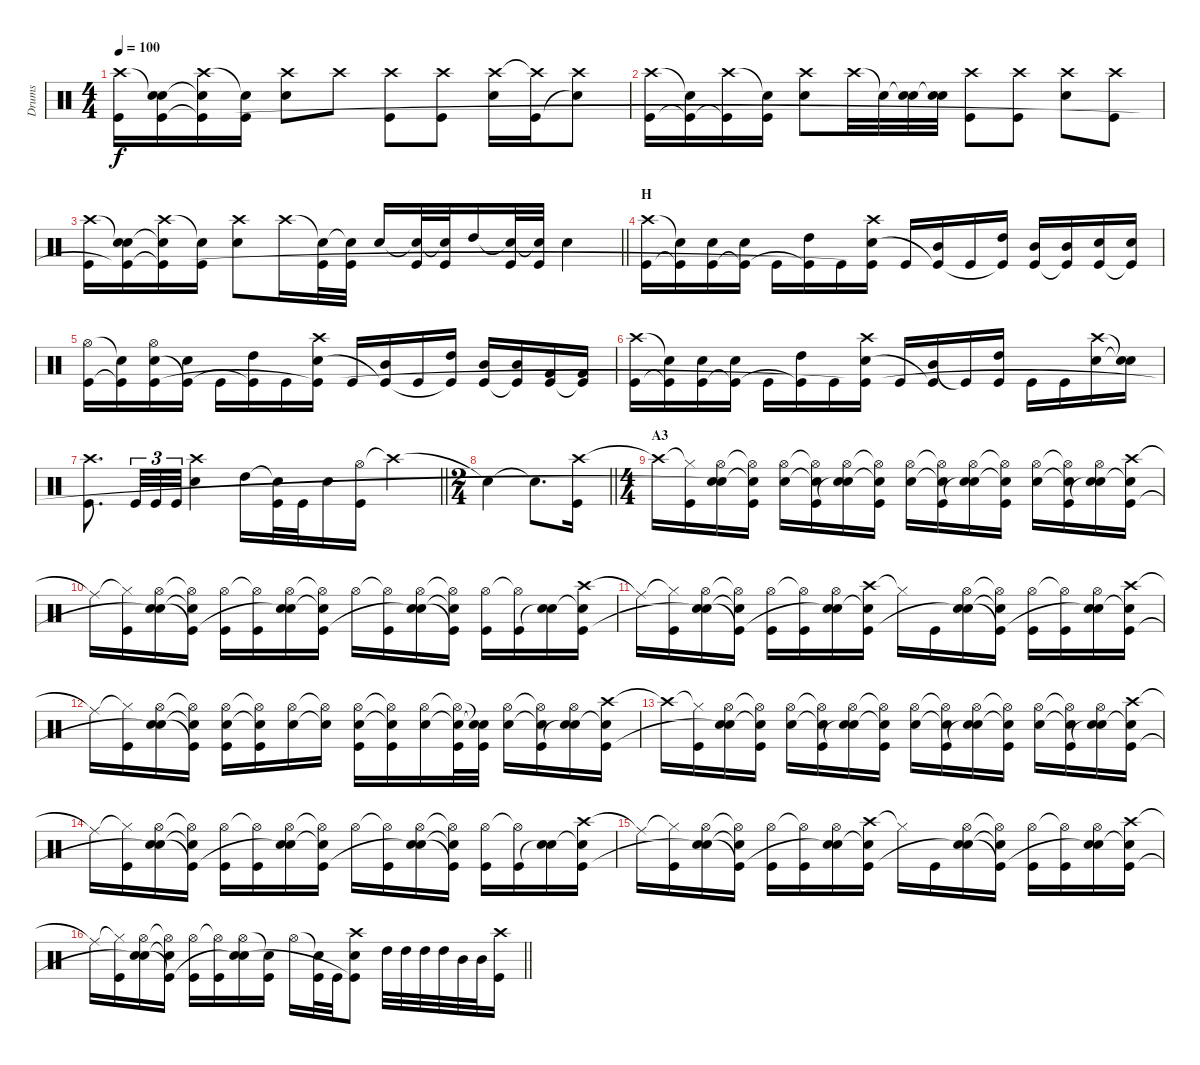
\track ("Drums" "Drums") {instrument percussion}
\staff {score}
\articulation defaults
\ts (4 4)
\tempo 100
\clef neutral
\ks c
("Crash high (hit)" "Kick (hit)").16{dy f} ("Snare (hit)"{t} "Snare (hit) 2" "Kick (hit)"{t}).16 ("Crash high (hit)" "Snare (hit)"{t} "Kick (hit)"{t}).16 ("Snare (hit)"{t} "Kick (hit)").16 ("Crash high (hit)" "Snare (hit) 2").8 "Crash high (hit)".8 ("Crash high (hit)" "Kick (hit)").8 ("Crash high (hit)" "Kick (hit)").8 ("Crash high (hit)" "Snare (hit) 2").16 ("Crash high (hit)"{t} "Kick (hit)").16 ("Crash high (hit)" "Snare (hit)"{t}).8 |
("Crash high (hit)" "Kick (hit)").16 ("Snare (hit)"{t} "Kick (hit)"{t}).16 ("Crash high (hit)" "Kick (hit)"{t}).16 ("Snare (hit)"{t} "Kick (hit)").16 ("Crash high (hit)" "Snare (hit) 2").8 "Crash high (hit)".32 "Snare (hit)"{t}.32 ("Snare (hit)"{t} "Snare (hit) 2").32 ("Snare (hit)"{t} "Snare (hit) 2").32 ("Crash high (hit)" "Kick (hit)").8 ("Crash high (hit)" "Kick (hit)").8 ("Crash high (hit)" "Snare (hit) 2").8 ("Crash high (hit)" "Kick (hit)").8 |
\barLineRight lightlight
("Crash high (hit)" "Kick (hit)").16 ("Snare (hit)"{t} "Snare (hit) 2" "Kick (hit)"{t}).16 ("Crash high (hit)" "Snare (hit)"{t} "Kick (hit)"{t}).16 ("Snare (hit)"{t} "Kick (hit)").16 ("Crash high (hit)" "Snare (hit) 2").8 "Crash high (hit)".16 ("Snare (hit)"{t} "Kick (hit)").32 ("Snare (hit)"{t} "Kick (hit)").32 "Snare (hit) 2".16 ("Snare (hit)"{t} "Kick (hit)").32 ("Snare (hit)"{t} "Kick (hit)").32 "High Tom (hit)".16 ("Snare (hit)"{t} "Kick (hit)").32 ("Snare (hit)"{t} "Kick (hit)").32 "Snare (hit) 2".4 |
\section ("" "H")
("Crash high (hit)" "Kick (hit)").16 ("Snare (hit)"{t} "Kick (hit)"{t}).16 ("Snare (hit) 2" "Kick (hit)").16 ("Snare (hit) 2" "Kick (hit)"{t}).16 "Kick (hit)".16 ("High Tom (hit)" "Kick (hit)"{t}).16 "Kick (hit)".16 ("Crash high (hit)" "Snare (hit) 2" "Kick (hit)"{t}).16 "Kick (hit)".16 ("Mid Tom (hit)" "Kick (hit)"{t}).16 "Kick (hit)".16 ("High Tom (hit)" "Kick (hit)"{t}).16 ("Mid Tom (hit)" "Kick (hit)").16 ("Mid Tom (hit)" "Kick (hit)"{t}).16 ("Snare (hit) 2" "Kick (hit)").16 ("Snare (hit) 2" "Kick (hit)"{t}).16 |
("Hi-Hat (open)" "Kick (hit)").16 ("Snare (hit)"{t} "Kick (hit)"{t}).16 ("Hi-Hat (open)" "Snare (hit) 2" "Kick (hit)").16 ("Snare (hit) 2" "Kick (hit)"{t}).16 "Kick (hit)".16 ("High Tom (hit)" "Kick (hit)"{t}).16 "Kick (hit)".16 ("Crash high (hit)" "Snare (hit) 2" "Kick (hit)"{t}).16 "Kick (hit)".16 ("Mid Tom (hit)" "Kick (hit)"{t}).16 "Kick (hit)".16 ("High Tom (hit)" "Kick (hit)"{t}).16 ("Mid Tom (hit)" "Kick (hit)").16 ("Mid Tom (hit)" "Kick (hit)"{t}).16 ("Very Low Tom (hit)" "Kick (hit)").16 ("Very Low Tom (hit)" "Kick (hit)"{t}).16 |
("Crash high (hit)" "Kick (hit)").16 ("Snare (hit)"{t} "Kick (hit)"{t}).16 ("Snare (hit) 2" "Kick (hit)").16 ("Snare (hit) 2" "Kick (hit)"{t}).16 "Kick (hit)".16 ("High Tom (hit)" "Kick (hit)"{t}).16 "Kick (hit)".16 ("Crash high (hit)" "Snare (hit) 2" "Kick (hit)"{t}).16 "Kick (hit)".16 ("Mid Tom (hit)" "Kick (hit)"{t}).16 "Kick (hit)"{t}.16 ("High Tom (hit)" "Kick (hit)").16 "Kick (hit)".16 "Kick (hit)".16 ("Crash high (hit)" "Snare (hit) 2").16 ("Snare (hit)"{t} "Snare (hit) 2"{t}).16 |
\barLineRight lightlight
("Crash high (hit)" "Kick (hit)").8{d} "Kick (hit)".32{tu (3 2)} "Kick (hit)".32{tu (3 2)} "Kick (hit)".32{tu (3 2)} ("Crash high (hit)" "Snare (hit) 2").4 "High Tom (hit)".16 ("Snare (hit)"{t} "Kick (hit)").32 "Kick (hit)".32 "Snare (hit) 2".16 ("Hi-Hat (open)" "Kick (hit)").16 "Crash high (hit)"{t}.4 |
\ts (2 4)
\barLineRight lightlight "Snare (hit)"{t}.4 "Snare (hit)"{t}.8{d}
("Crash high (hit)" "Kick (hit)").16 |
\ts (4 4)
\section ("" "A3")
"Crash high (hit)"{t}.16 ("Hi-Hat (closed)"{t} "Kick (hit)").16 ("Hi-Hat (open)" "Snare (hit) 2" "Snare (hit)"{t}).16 ("Hi-Hat (open)"{t} "Snare (hit) 2"{t} "Kick (hit)").16 ("Hi-Hat (open)" "Snare (hit) 2").16 ("Hi-Hat (open)"{t} "Snare (hit) 2"{t} "Kick (hit)").16 ("Hi-Hat (open)" "Snare (hit) 2" "Snare (hit)"{t}).16 ("Hi-Hat (open)"{t} "Snare (hit) 2"{t} "Kick (hit)").16 ("Hi-Hat (open)" "Snare (hit) 2").16 ("Hi-Hat (open)"{t} "Snare (hit) 2"{t} "Kick (hit)").16 ("Hi-Hat (open)" "Snare (hit) 2" "Snare (hit)"{t}).16 ("Hi-Hat (open)"{t} "Snare (hit) 2"{t} "Kick (hit)").16 ("Hi-Hat (open)" "Snare (hit) 2").16 ("Hi-Hat (open)"{t} "Snare (hit) 2"{t} "Kick (hit)").16 ("Hi-Hat (open)" "Snare (hit) 2" "Snare (hit)"{t}).16 ("Crash high (hit)" "Snare (hit) 2"{t} "Kick (hit)").16 |
"Ride (middle)"{t}.16 ("Hi-Hat (closed)"{t} "Kick (hit)").16 ("Hi-Hat (open)" "Snare (hit) 2" "Snare (hit)"{t}).16 ("Hi-Hat (open)"{t} "Snare (hit) 2"{t} "Kick (hit)"{t}).16 ("Hi-Hat (open)" "Kick (hit)").16 ("Hi-Hat (open)"{t} "Kick (hit)").16 ("Hi-Hat (open)" "Snare (hit) 2" "Snare (hit)"{t}).16 ("Hi-Hat (open)"{t} "Snare (hit) 2"{t} "Kick (hit)").16 "Hi-Hat (open)".16 ("Hi-Hat (open)"{t} "Kick (hit)").16 ("Hi-Hat (open)" "Snare (hit) 2" "Snare (hit)"{t}).16 ("Hi-Hat (open)"{t} "Snare (hit) 2"{t} "Kick (hit)"{t}).16 ("Hi-Hat (open)" "Kick (hit)").16 ("Hi-Hat (open)"{t} "Kick (hit)").16 ("Snare (hit) 2" "Snare (hit)"{t}).16 ("Crash high (hit)" "Snare (hit) 2"{t} "Kick (hit)").16 |
"Ride (middle)"{t}.16 ("Hi-Hat (closed)"{t} "Kick (hit)").16 ("Hi-Hat (open)" "Snare (hit) 2" "Snare (hit)"{t}).16 ("Hi-Hat (open)"{t} "Snare (hit) 2"{t} "Kick (hit)"{t}).16 ("Hi-Hat (open)" "Kick (hit)").16 ("Hi-Hat (open)"{t} "Kick (hit)").16 ("Hi-Hat (open)" "Snare (hit) 2" "Snare (hit)"{t}).16 ("Crash high (hit)" "Snare (hit) 2"{t} "Kick (hit)").16 "Hi-Hat (closed)"{t}.16 "Kick (hit)".16 ("Hi-Hat (open)" "Snare (hit) 2" "Snare (hit)"{t}).16 ("Hi-Hat (open)"{t} "Snare (hit) 2"{t} "Kick (hit)"{t}).16 ("Hi-Hat (open)" "Kick (hit)").16 ("Hi-Hat (open)"{t} "Kick (hit)").16 ("Hi-Hat (open)" "Snare (hit) 2" "Snare (hit)"{t}).16 ("Crash high (hit)" "Snare (hit) 2"{t} "Kick (hit)").16 |
"Ride (middle)"{t}.16 ("Hi-Hat (closed)"{t} "Kick (hit)").16 ("Hi-Hat (open)" "Snare (hit) 2" "Snare (hit)"{t}).16 ("Hi-Hat (open)"{t} "Snare (hit) 2"{t} "Kick (hit)"{t}).16 ("Hi-Hat (open)" "Snare (hit) 2" "Kick (hit)").16 ("Hi-Hat (open)"{t} "Snare (hit) 2"{t} "Kick (hit)").16 ("Hi-Hat (open)" "Snare (hit) 2").16 ("Hi-Hat (open)"{t} "Snare (hit) 2"{t}).16 ("Hi-Hat (open)" "Snare (hit) 2" "Kick (hit)").16 ("Hi-Hat (open)"{t} "Snare (hit) 2"{t} "Kick (hit)").16 ("Hi-Hat (open)" "Snare (hit) 2").16 ("Hi-Hat (open)"{t} "Snare (hit) 2"{t} "Kick (hit)").32 ("Snare (hit)"{t} "Snare (hit)"{t} "Kick (hit)").32 ("Hi-Hat (open)" "Snare (hit) 2").16 ("Hi-Hat (open)"{t} "Snare (hit) 2"{t} "Kick (hit)").16 ("Hi-Hat (open)" "Snare (hit) 2" "Snare (hit)"{t}).16 ("Crash high (hit)" "Snare (hit) 2"{t} "Kick (hit)").16 |
"Crash high (hit)"{t}.16 ("Hi-Hat (closed)"{t} "Kick (hit)").16 ("Hi-Hat (open)" "Snare (hit) 2" "Snare (hit)"{t}).16 ("Hi-Hat (open)"{t} "Snare (hit) 2"{t} "Kick (hit)").16 ("Hi-Hat (open)" "Snare (hit) 2").16 ("Hi-Hat (open)"{t} "Snare (hit) 2"{t} "Kick (hit)").16 ("Hi-Hat (open)" "Snare (hit) 2" "Snare (hit)"{t}).16 ("Hi-Hat (open)"{t} "Snare (hit) 2"{t} "Kick (hit)").16 ("Hi-Hat (open)" "Snare (hit) 2").16 ("Hi-Hat (open)"{t} "Snare (hit) 2"{t} "Kick (hit)").16 ("Hi-Hat (open)" "Snare (hit) 2" "Snare (hit)"{t}).16 ("Hi-Hat (open)"{t} "Snare (hit) 2"{t} "Kick (hit)").16 ("Hi-Hat (open)" "Snare (hit) 2").16 ("Hi-Hat (open)"{t} "Snare (hit) 2"{t} "Kick (hit)").16 ("Hi-Hat (open)" "Snare (hit) 2" "Snare (hit)"{t}).16 ("Crash high (hit)" "Snare (hit) 2"{t} "Kick (hit)").16 |
"Ride (middle)"{t}.16 ("Hi-Hat (closed)"{t} "Kick (hit)").16 ("Hi-Hat (open)" "Snare (hit) 2" "Snare (hit)"{t}).16 ("Hi-Hat (open)"{t} "Snare (hit) 2"{t} "Kick (hit)"{t}).16 ("Hi-Hat (open)" "Kick (hit)").16 ("Hi-Hat (open)"{t} "Kick (hit)").16 ("Hi-Hat (open)" "Snare (hit) 2" "Snare (hit)"{t}).16 ("Hi-Hat (open)"{t} "Snare (hit) 2"{t} "Kick (hit)").16 "Hi-Hat (open)".16 ("Hi-Hat (open)"{t} "Kick (hit)").16 ("Hi-Hat (open)" "Snare (hit) 2" "Snare (hit)"{t}).16 ("Hi-Hat (open)"{t} "Snare (hit) 2"{t} "Kick (hit)"{t}).16 ("Hi-Hat (open)" "Kick (hit)").16 ("Hi-Hat (open)"{t} "Kick (hit)").16 ("Snare (hit) 2" "Snare (hit)"{t}).16 ("Crash high (hit)" "Snare (hit) 2"{t} "Kick (hit)").16 |
"Ride (middle)"{t}.16 ("Hi-Hat (closed)"{t} "Kick (hit)").16 ("Hi-Hat (open)" "Snare (hit) 2" "Snare (hit)"{t}).16 ("Hi-Hat (open)"{t} "Snare (hit) 2"{t} "Kick (hit)"{t}).16 ("Hi-Hat (open)" "Kick (hit)").16 ("Hi-Hat (open)"{t} "Kick (hit)").16 ("Hi-Hat (open)" "Snare (hit) 2" "Snare (hit)"{t}).16 ("Crash high (hit)" "Snare (hit) 2"{t} "Kick (hit)").16 "Hi-Hat (closed)"{t}.16 "Kick (hit)".16 ("Hi-Hat (open)" "Snare (hit) 2" "Snare (hit)"{t}).16 ("Hi-Hat (open)"{t} "Snare (hit) 2"{t} "Kick (hit)"{t}).16 ("Hi-Hat (open)" "Kick (hit)").16 ("Hi-Hat (open)"{t} "Kick (hit)").16 ("Hi-Hat (open)" "Snare (hit) 2" "Snare (hit)"{t}).16 ("Crash high (hit)" "Snare (hit) 2"{t} "Kick (hit)").16 |
\barLineRight lightlight "Ride (middle)"{t}.16
("Hi-Hat (closed)"{t} "Kick (hit)").16 ("Hi-Hat (open)" "Snare (hit) 2" "Snare (hit)"{t}).16 ("Hi-Hat (open)"{t} "Snare (hit) 2"{t} "Kick (hit)"{t}).16 ("Hi-Hat (open)" "Kick (hit)").16 ("Hi-Hat (open)"{t} "Kick (hit)").16 ("Hi-Hat (open)" "Snare (hit) 2" "Snare (hit)"{t}).16 ("Snare (hit) 2"{t} "Kick (hit)").16 "Hi-Hat (open)".16 ("Snare (hit)"{t} "Kick (hit)").32 "Kick (hit)".32 ("Crash high (hit)" "Snare (hit) 2" "Kick (hit)"{t}).8 "High Tom (hit)".32 "High Tom (hit)".32 "High Tom (hit)".32 "High Tom (hit)".32 "Mid Tom (hit)".32 "Mid Tom (hit)".32 ("Crash high (hit)" "Kick (hit)").16
